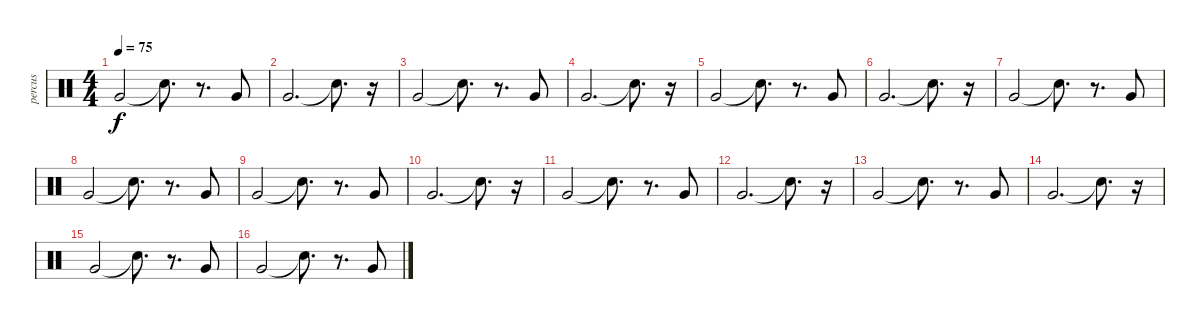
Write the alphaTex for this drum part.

\track ("percus" "percus") {instrument percussion}
\staff {score}
\articulation defaults
\ts (4 4)
\tempo 75
\clef neutral
\ks c "Very Low Tom (hit)".2{dy f} "Snare (hit)"{t}.8{d}
r.8{d} "Very Low Tom (hit)".8 |
"Very Low Tom (hit)".2{d} "Snare (hit)"{t}.8{d} r.16 |
"Very Low Tom (hit)".2 "Snare (hit)"{t}.8{d} r.8{d} "Very Low Tom (hit)".8 |
"Very Low Tom (hit)".2{d} "Snare (hit)"{t}.8{d} r.16 |
"Very Low Tom (hit)".2 "Snare (hit)"{t}.8{d} r.8{d} "Very Low Tom (hit)".8 |
"Very Low Tom (hit)".2{d} "Snare (hit)"{t}.8{d} r.16 |
"Very Low Tom (hit)".2 "Snare (hit)"{t}.8{d} r.8{d} "Very Low Tom (hit)".8 |
"Very Low Tom (hit)".2 "Snare (hit)"{t}.8{d} r.8{d} "Very Low Tom (hit)".8 |
"Very Low Tom (hit)".2 "Snare (hit)"{t}.8{d} r.8{d} "Very Low Tom (hit)".8 |
"Very Low Tom (hit)".2{d} "Snare (hit)"{t}.8{d} r.16 |
"Very Low Tom (hit)".2 "Snare (hit)"{t}.8{d} r.8{d} "Very Low Tom (hit)".8 |
"Very Low Tom (hit)".2{d} "Snare (hit)"{t}.8{d} r.16 |
"Very Low Tom (hit)".2 "Snare (hit)"{t}.8{d} r.8{d} "Very Low Tom (hit)".8 |
"Very Low Tom (hit)".2{d} "Snare (hit)"{t}.8{d} r.16 |
"Very Low Tom (hit)".2 "Snare (hit)"{t}.8{d} r.8{d} "Very Low Tom (hit)".8 |
"Very Low Tom (hit)".2 "Snare (hit)"{t}.8{d} r.8{d} "Very Low Tom (hit)".8
